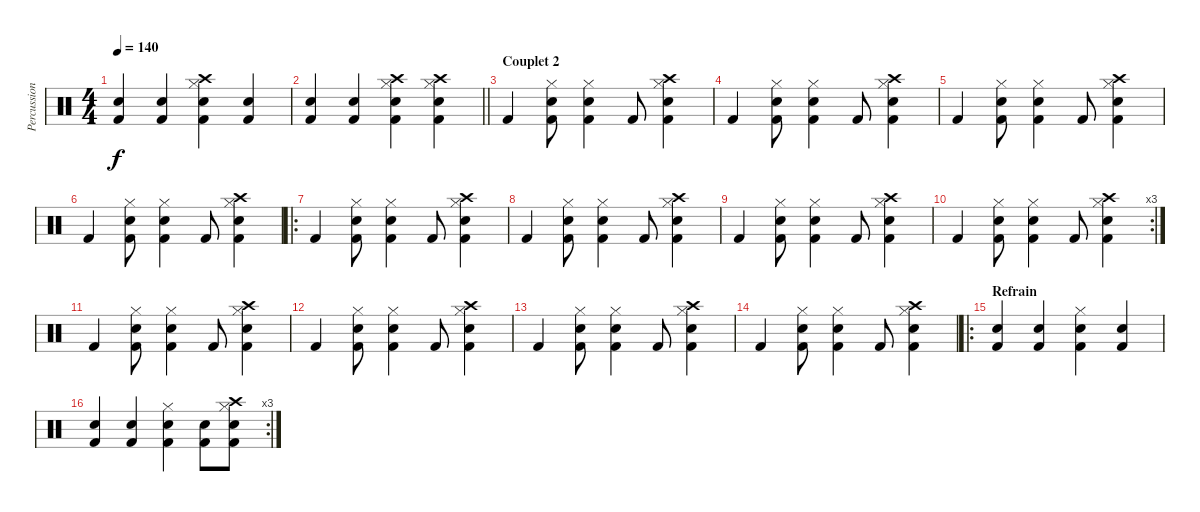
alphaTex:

\track ("Percussions" "Percussion") {instrument percussion}
\staff {score}
\articulation defaults
\ts (4 4)
\tempo 140
\clef neutral
\ks c
("Snare (hit) 2" "Kick (hit) 2").4{dy f} ("Snare (hit) 2" "Kick (hit) 2").4 ("Snare (hit) 2" "Kick (hit) 2" "Hi-Hat (closed)" "Crash high (hit)").4 ("Snare (hit) 2" "Kick (hit) 2").4 |
\barLineRight lightlight
("Snare (hit) 2" "Kick (hit) 2").4 ("Snare (hit) 2" "Kick (hit) 2").4 ("Snare (hit) 2" "Kick (hit) 2" "Hi-Hat (closed)" "Crash high (hit)").4 ("Snare (hit) 2" "Kick (hit) 2" "Hi-Hat (closed)" "Crash high (hit)").4 |
\section ("" "Couplet 2")
"Kick (hit) 2".4 ("Snare (hit) 2" "Kick (hit) 2" "Hi-Hat (closed)").8 ("Snare (hit) 2" "Kick (hit) 2" "Hi-Hat (closed)").4 "Kick (hit) 2".8 ("Snare (hit) 2" "Kick (hit) 2" "Hi-Hat (closed)" "Crash high (hit)").4 |
"Kick (hit) 2".4 ("Snare (hit) 2" "Kick (hit) 2" "Hi-Hat (closed)").8 ("Snare (hit) 2" "Kick (hit) 2" "Hi-Hat (closed)").4 "Kick (hit) 2".8 ("Snare (hit) 2" "Kick (hit) 2" "Hi-Hat (closed)" "Crash high (hit)").4 |
"Kick (hit) 2".4 ("Snare (hit) 2" "Kick (hit) 2" "Hi-Hat (closed)").8 ("Snare (hit) 2" "Kick (hit) 2" "Hi-Hat (closed)").4 "Kick (hit) 2".8 ("Snare (hit) 2" "Kick (hit) 2" "Hi-Hat (closed)" "Crash high (hit)").4 |
"Kick (hit) 2".4 ("Snare (hit) 2" "Kick (hit) 2" "Hi-Hat (closed)").8 ("Snare (hit) 2" "Kick (hit) 2" "Hi-Hat (closed)").4 "Kick (hit) 2".8 ("Snare (hit) 2" "Kick (hit) 2" "Hi-Hat (closed)" "Crash high (hit)").4 |
\ro "Kick (hit) 2".4
("Snare (hit) 2" "Kick (hit) 2" "Hi-Hat (closed)").8 ("Snare (hit) 2" "Kick (hit) 2" "Hi-Hat (closed)").4 "Kick (hit) 2".8 ("Snare (hit) 2" "Kick (hit) 2" "Hi-Hat (closed)" "Crash high (hit)").4 |
"Kick (hit) 2".4 ("Snare (hit) 2" "Kick (hit) 2" "Hi-Hat (closed)").8 ("Snare (hit) 2" "Kick (hit) 2" "Hi-Hat (closed)").4 "Kick (hit) 2".8 ("Snare (hit) 2" "Kick (hit) 2" "Hi-Hat (closed)" "Crash high (hit)").4 |
"Kick (hit) 2".4 ("Snare (hit) 2" "Kick (hit) 2" "Hi-Hat (closed)").8 ("Snare (hit) 2" "Kick (hit) 2" "Hi-Hat (closed)").4 "Kick (hit) 2".8 ("Snare (hit) 2" "Kick (hit) 2" "Hi-Hat (closed)" "Crash high (hit)").4 |
\rc 3 "Kick (hit) 2".4
("Snare (hit) 2" "Kick (hit) 2" "Hi-Hat (closed)").8 ("Snare (hit) 2" "Kick (hit) 2" "Hi-Hat (closed)").4 "Kick (hit) 2".8 ("Snare (hit) 2" "Kick (hit) 2" "Hi-Hat (closed)" "Crash high (hit)").4 |
"Kick (hit) 2".4 ("Snare (hit) 2" "Kick (hit) 2" "Hi-Hat (closed)").8 ("Snare (hit) 2" "Kick (hit) 2" "Hi-Hat (closed)").4 "Kick (hit) 2".8 ("Snare (hit) 2" "Kick (hit) 2" "Hi-Hat (closed)" "Crash high (hit)").4 |
"Kick (hit) 2".4 ("Snare (hit) 2" "Kick (hit) 2" "Hi-Hat (closed)").8 ("Snare (hit) 2" "Kick (hit) 2" "Hi-Hat (closed)").4 "Kick (hit) 2".8 ("Snare (hit) 2" "Kick (hit) 2" "Hi-Hat (closed)" "Crash high (hit)").4 |
"Kick (hit) 2".4 ("Snare (hit) 2" "Kick (hit) 2" "Hi-Hat (closed)").8 ("Snare (hit) 2" "Kick (hit) 2" "Hi-Hat (closed)").4 "Kick (hit) 2".8 ("Snare (hit) 2" "Kick (hit) 2" "Hi-Hat (closed)" "Crash high (hit)").4 |
"Kick (hit) 2".4 ("Snare (hit) 2" "Kick (hit) 2" "Hi-Hat (closed)").8 ("Snare (hit) 2" "Kick (hit) 2" "Hi-Hat (closed)").4 "Kick (hit) 2".8 ("Snare (hit) 2" "Kick (hit) 2" "Hi-Hat (closed)" "Crash high (hit)").4 |
\ro
\section ("" "Refrain")
("Snare (hit) 2" "Kick (hit) 2").4 ("Snare (hit) 2" "Kick (hit) 2").4 ("Snare (hit) 2" "Kick (hit) 2" "Hi-Hat (closed)").4 ("Snare (hit) 2" "Kick (hit) 2").4 |
\rc 3
("Snare (hit) 2" "Kick (hit) 2").4 ("Snare (hit) 2" "Kick (hit) 2").4 ("Snare (hit) 2" "Kick (hit) 2" "Hi-Hat (closed)").4 ("Snare (hit) 2" "Kick (hit) 2").8 ("Snare (hit) 2" "Kick (hit) 2" "Hi-Hat (closed)" "Crash high (hit)").8
